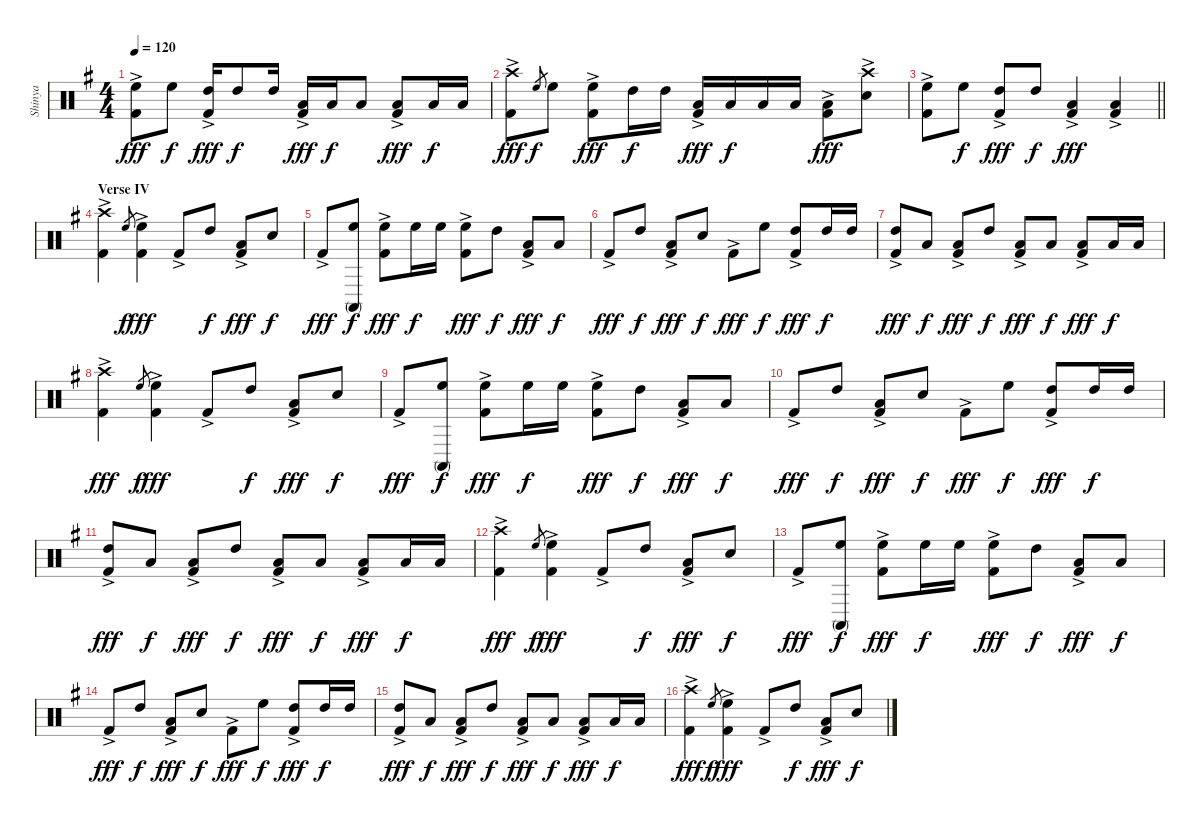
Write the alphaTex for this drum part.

\track ("Shinya" "Shinya") {instrument percussion}
\staff {score}
\articulation defaults
\ts (4 4)
\tempo 120
\clef neutral
\ks g
("High Floor Tom (hit)" "Kick (hit) 2"{ac}).8{dy fff} "High Floor Tom (hit)".8{dy f} ("High Tom (hit)" "Kick (hit) 2"{ac}).16{dy fff} "High Tom (hit)".8{dy f} "High Tom (hit)".16 ("Low Tom (hit)" "Kick (hit) 2"{ac}).16{dy fff} "Low Tom (hit)".16{dy f} "Low Tom (hit)".8 ("Low Floor Tom (hit)" "Kick (hit) 2"{ac}).8{dy fff} "Low Floor Tom (hit)".16{dy f} "Low Floor Tom (hit)".16 |
("Crash high (hit)"{ac} "Kick (hit) 2"{ac}).8{dy fff} "High Floor Tom (hit)".8{gr dy f} "High Floor Tom (hit)".8 ("High Floor Tom (hit)" "Kick (hit) 2"{ac}).8{dy fff} "High Tom (hit)".16{dy f} "High Tom (hit)".16 ("Low Tom (hit)" "Kick (hit) 2"{ac}).16{dy fff} "Low Tom (hit)".16{dy f} "Low Tom (hit)".16 "Low Tom (hit)".16 ("Low Floor Tom (hit)" "Kick (hit) 2"{ac}).8{dy fff} ("Crash high (hit)"{ac} "Snare (hit) 2").8 |
\barLineRight lightlight
("High Floor Tom (hit)" "Kick (hit) 2"{ac}).8 "High Floor Tom (hit)".8{dy f} ("High Tom (hit)" "Kick (hit) 2"{ac}).8{dy fff} "High Tom (hit)".8{dy f} ("Low Tom (hit)" "Kick (hit) 2"{ac}).4{dy fff} ("Low Floor Tom (hit)" "Kick (hit) 2"{ac}).4 |
\section ("" "Verse IV")
("Crash high (hit)"{ac} "Kick (hit) 2").4 "High Floor Tom (hit)".8{gr dy f} ("High Floor Tom (hit)" "Kick (hit) 2"{ac}).4{dy fff} "Kick (hit) 2"{ac}.8 "High Tom (hit)".8{dy f} ("Low Tom (hit)" "Kick (hit) 2"{ac}).8{dy fff} "Snare (hit) 2".8{dy f} |
"Kick (hit) 2"{ac}.8{dy fff} ("Conga high (mute)" "High Floor Tom (hit)").8{dy f} ("High Floor Tom (hit)" "Kick (hit) 2"{ac}).8{dy fff} "High Floor Tom (hit)".16{dy f} "High Floor Tom (hit)".16 ("High Floor Tom (hit)" "Kick (hit) 2"{ac}).8{dy fff} "High Tom (hit)".8{dy f} ("Low Tom (hit)" "Kick (hit) 2"{ac}).8{dy fff} "Low Floor Tom (hit)".8{dy f} |
"Kick (hit) 2"{ac}.8{dy fff} "High Tom (hit)".8{dy f} ("Low Tom (hit)" "Kick (hit) 2"{ac}).8{dy fff} "Snare (hit) 2".8{dy f} "Kick (hit) 2"{ac}.8{dy fff} "High Floor Tom (hit)".8{dy f} ("High Tom (hit)" "Kick (hit) 2"{ac}).8{dy fff} "High Tom (hit)".16{dy f} "High Tom (hit)".16 |
("High Tom (hit)" "Kick (hit) 2"{ac}).8{dy fff} "Low Tom (hit)".8{dy f} ("Low Floor Tom (hit)" "Kick (hit) 2"{ac}).8{dy fff} "High Tom (hit)".8{dy f} ("Low Tom (hit)" "Kick (hit) 2"{ac}).8{dy fff} "Low Floor Tom (hit)".8{dy f} ("Low Floor Tom (hit)" "Kick (hit) 2"{ac}).8{dy fff} "Low Floor Tom (hit)".16{dy f} "Low Floor Tom (hit)".16 |
("Crash high (hit)"{ac} "Kick (hit) 2").4{dy fff} "High Floor Tom (hit)".8{gr dy f} ("High Floor Tom (hit)" "Kick (hit) 2"{ac}).4{dy fff} "Kick (hit) 2"{ac}.8 "High Tom (hit)".8{dy f} ("Low Tom (hit)" "Kick (hit) 2"{ac}).8{dy fff} "Snare (hit) 2".8{dy f} |
"Kick (hit) 2"{ac}.8{dy fff} ("Conga high (mute)" "High Floor Tom (hit)").8{dy f} ("High Floor Tom (hit)" "Kick (hit) 2"{ac}).8{dy fff} "High Floor Tom (hit)".16{dy f} "High Floor Tom (hit)".16 ("High Floor Tom (hit)" "Kick (hit) 2"{ac}).8{dy fff} "High Tom (hit)".8{dy f} ("Low Tom (hit)" "Kick (hit) 2"{ac}).8{dy fff} "Low Floor Tom (hit)".8{dy f} |
"Kick (hit) 2"{ac}.8{dy fff} "High Tom (hit)".8{dy f} ("Low Tom (hit)" "Kick (hit) 2"{ac}).8{dy fff} "Snare (hit) 2".8{dy f} "Kick (hit) 2"{ac}.8{dy fff} "High Floor Tom (hit)".8{dy f} ("High Tom (hit)" "Kick (hit) 2"{ac}).8{dy fff} "High Tom (hit)".16{dy f} "High Tom (hit)".16 |
("High Tom (hit)" "Kick (hit) 2"{ac}).8{dy fff} "Low Tom (hit)".8{dy f} ("Low Floor Tom (hit)" "Kick (hit) 2"{ac}).8{dy fff} "High Tom (hit)".8{dy f} ("Low Tom (hit)" "Kick (hit) 2"{ac}).8{dy fff} "Low Floor Tom (hit)".8{dy f} ("Low Floor Tom (hit)" "Kick (hit) 2"{ac}).8{dy fff} "Low Floor Tom (hit)".16{dy f} "Low Floor Tom (hit)".16 |
("Crash high (hit)"{ac} "Kick (hit) 2").4{dy fff} "High Floor Tom (hit)".8{gr dy f} ("High Floor Tom (hit)" "Kick (hit) 2"{ac}).4{dy fff} "Kick (hit) 2"{ac}.8 "High Tom (hit)".8{dy f} ("Low Tom (hit)" "Kick (hit) 2"{ac}).8{dy fff} "Snare (hit) 2".8{dy f} |
"Kick (hit) 2"{ac}.8{dy fff} ("Conga high (mute)" "High Floor Tom (hit)").8{dy f} ("High Floor Tom (hit)" "Kick (hit) 2"{ac}).8{dy fff} "High Floor Tom (hit)".16{dy f} "High Floor Tom (hit)".16 ("High Floor Tom (hit)" "Kick (hit) 2"{ac}).8{dy fff} "High Tom (hit)".8{dy f} ("Low Tom (hit)" "Kick (hit) 2"{ac}).8{dy fff} "Low Floor Tom (hit)".8{dy f} |
"Kick (hit) 2"{ac}.8{dy fff} "High Tom (hit)".8{dy f} ("Low Tom (hit)" "Kick (hit) 2"{ac}).8{dy fff} "Snare (hit) 2".8{dy f} "Kick (hit) 2"{ac}.8{dy fff} "High Floor Tom (hit)".8{dy f} ("High Tom (hit)" "Kick (hit) 2"{ac}).8{dy fff} "High Tom (hit)".16{dy f} "High Tom (hit)".16 |
("High Tom (hit)" "Kick (hit) 2"{ac}).8{dy fff} "Low Tom (hit)".8{dy f} ("Low Floor Tom (hit)" "Kick (hit) 2"{ac}).8{dy fff} "High Tom (hit)".8{dy f} ("Low Tom (hit)" "Kick (hit) 2"{ac}).8{dy fff} "Low Floor Tom (hit)".8{dy f} ("Low Floor Tom (hit)" "Kick (hit) 2"{ac}).8{dy fff} "Low Floor Tom (hit)".16{dy f} "Low Floor Tom (hit)".16 |
("Crash high (hit)"{ac} "Kick (hit) 2").4{dy fff} "High Floor Tom (hit)".8{gr dy f} ("High Floor Tom (hit)" "Kick (hit) 2"{ac}).4{dy fff} "Kick (hit) 2"{ac}.8 "High Tom (hit)".8{dy f} ("Low Tom (hit)" "Kick (hit) 2"{ac}).8{dy fff} "Snare (hit) 2".8{dy f}
